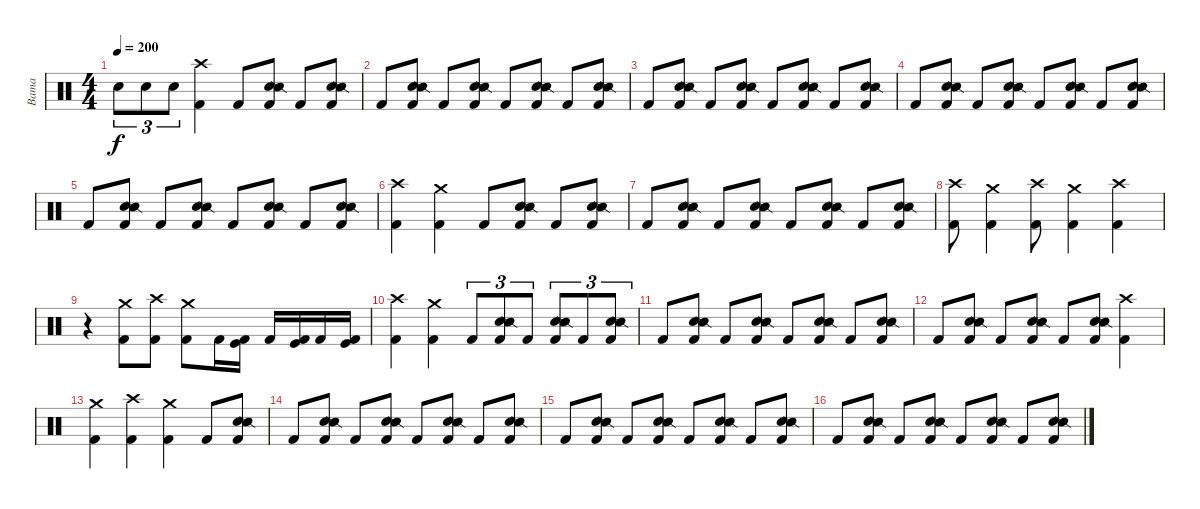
\track ("Bama" "Bama") {instrument percussion}
\staff {score}
\articulation defaults
\ts (4 4)
\tempo 200
\clef neutral
\ks c "Electric Snare (hit)".8{tu (3 2) dy f} "Electric Snare (hit)".8{tu (3 2)} "Electric Snare (hit)".8{tu (3 2)}
("Crash high (hit)" "Kick (hit) 2").4 "Kick (hit) 2".8 ("Electric Snare (hit)" "Snare (side stick) 2" "Kick (hit) 2").8 "Kick (hit) 2".8 ("Electric Snare (hit)" "Snare (side stick) 2" "Kick (hit) 2").8 |
"Kick (hit) 2".8 ("Electric Snare (hit)" "Snare (side stick) 2" "Kick (hit) 2").8 "Kick (hit) 2".8 ("Electric Snare (hit)" "Snare (side stick) 2" "Kick (hit) 2").8 "Kick (hit) 2".8 ("Electric Snare (hit)" "Snare (side stick) 2" "Kick (hit) 2").8 "Kick (hit) 2".8 ("Electric Snare (hit)" "Snare (side stick) 2" "Kick (hit) 2").8 |
"Kick (hit) 2".8 ("Electric Snare (hit)" "Snare (side stick) 2" "Kick (hit) 2").8 "Kick (hit) 2".8 ("Electric Snare (hit)" "Snare (side stick) 2" "Kick (hit) 2").8 "Kick (hit) 2".8 ("Electric Snare (hit)" "Snare (side stick) 2" "Kick (hit) 2").8 "Kick (hit) 2".8 ("Electric Snare (hit)" "Snare (side stick) 2" "Kick (hit) 2").8 |
"Kick (hit) 2".8 ("Electric Snare (hit)" "Snare (side stick) 2" "Kick (hit) 2").8 "Kick (hit) 2".8 ("Electric Snare (hit)" "Snare (side stick) 2" "Kick (hit) 2").8 "Kick (hit) 2".8 ("Electric Snare (hit)" "Snare (side stick) 2" "Kick (hit) 2").8 "Kick (hit) 2".8 ("Electric Snare (hit)" "Snare (side stick) 2" "Kick (hit) 2").8 |
"Kick (hit) 2".8 ("Electric Snare (hit)" "Snare (side stick) 2" "Kick (hit) 2").8 "Kick (hit) 2".8 ("Electric Snare (hit)" "Snare (side stick) 2" "Kick (hit) 2").8 "Kick (hit) 2".8 ("Electric Snare (hit)" "Snare (side stick) 2" "Kick (hit) 2").8 "Kick (hit) 2".8 ("Electric Snare (hit)" "Snare (side stick) 2" "Kick (hit) 2").8 |
("Crash high (hit)" "Kick (hit) 2").4 ("Crash medium (hit)" "Kick (hit) 2").4 "Kick (hit) 2".8 ("Electric Snare (hit)" "Snare (side stick) 2" "Kick (hit) 2").8 "Kick (hit) 2".8 ("Electric Snare (hit)" "Snare (side stick) 2" "Kick (hit) 2").8 |
"Kick (hit) 2".8 ("Electric Snare (hit)" "Snare (side stick) 2" "Kick (hit) 2").8 "Kick (hit) 2".8 ("Electric Snare (hit)" "Snare (side stick) 2" "Kick (hit) 2").8 "Kick (hit) 2".8 ("Electric Snare (hit)" "Snare (side stick) 2" "Kick (hit) 2").8 "Kick (hit) 2".8 ("Electric Snare (hit)" "Snare (side stick) 2" "Kick (hit) 2").8 |
("Crash high (hit)" "Kick (hit) 2").8 ("Crash medium (hit)" "Kick (hit) 2").4 ("Crash high (hit)" "Kick (hit) 2").8 ("Crash medium (hit)" "Kick (hit) 2").4 ("Crash high (hit)" "Kick (hit) 2").4 |
r.4 ("Crash medium (hit)" "Kick (hit) 2").8 ("Crash high (hit)" "Kick (hit) 2").8 ("Crash medium (hit)" "Kick (hit) 2").8 "Kick (hit) 2".16 ("Kick (hit)" "Kick (hit) 2").16 "Kick (hit) 2".16 ("Kick (hit)" "Kick (hit) 2").16 "Kick (hit) 2".16 ("Kick (hit)" "Kick (hit) 2").16 |
("Crash high (hit)" "Kick (hit) 2").4 ("Crash medium (hit)" "Kick (hit) 2").4 "Kick (hit) 2".8{tu (3 2)} ("Electric Snare (hit)" "Snare (side stick) 2" "Kick (hit) 2").8{tu (3 2)} "Kick (hit) 2".8{tu (3 2)} ("Electric Snare (hit)" "Snare (side stick) 2" "Kick (hit) 2").8{tu (3 2)} "Kick (hit) 2".8{tu (3 2)} ("Electric Snare (hit)" "Snare (side stick) 2" "Kick (hit) 2").8{tu (3 2)} |
"Kick (hit) 2".8 ("Electric Snare (hit)" "Snare (side stick) 2" "Kick (hit) 2").8 "Kick (hit) 2".8 ("Electric Snare (hit)" "Snare (side stick) 2" "Kick (hit) 2").8 "Kick (hit) 2".8 ("Electric Snare (hit)" "Snare (side stick) 2" "Kick (hit) 2").8 "Kick (hit) 2".8 ("Electric Snare (hit)" "Snare (side stick) 2" "Kick (hit) 2").8 |
"Kick (hit) 2".8 ("Electric Snare (hit)" "Snare (side stick) 2" "Kick (hit) 2").8 "Kick (hit) 2".8 ("Electric Snare (hit)" "Snare (side stick) 2" "Kick (hit) 2").8 "Kick (hit) 2".8 ("Electric Snare (hit)" "Snare (side stick) 2" "Kick (hit) 2").8 ("Crash high (hit)" "Kick (hit) 2").4 |
("Crash medium (hit)" "Kick (hit) 2").4 ("Crash high (hit)" "Kick (hit) 2").4 ("Crash medium (hit)" "Kick (hit) 2").4 "Kick (hit) 2".8 ("Electric Snare (hit)" "Snare (side stick) 2" "Kick (hit) 2").8 |
"Kick (hit) 2".8 ("Electric Snare (hit)" "Snare (side stick) 2" "Kick (hit) 2").8 "Kick (hit) 2".8 ("Electric Snare (hit)" "Snare (side stick) 2" "Kick (hit) 2").8 "Kick (hit) 2".8 ("Electric Snare (hit)" "Snare (side stick) 2" "Kick (hit) 2").8 "Kick (hit) 2".8 ("Electric Snare (hit)" "Snare (side stick) 2" "Kick (hit) 2").8 |
"Kick (hit) 2".8 ("Electric Snare (hit)" "Snare (side stick) 2" "Kick (hit) 2").8 "Kick (hit) 2".8 ("Electric Snare (hit)" "Snare (side stick) 2" "Kick (hit) 2").8 "Kick (hit) 2".8 ("Electric Snare (hit)" "Snare (side stick) 2" "Kick (hit) 2").8 "Kick (hit) 2".8 ("Electric Snare (hit)" "Snare (side stick) 2" "Kick (hit) 2").8 |
"Kick (hit) 2".8 ("Electric Snare (hit)" "Snare (side stick) 2" "Kick (hit) 2").8 "Kick (hit) 2".8 ("Electric Snare (hit)" "Snare (side stick) 2" "Kick (hit) 2").8 "Kick (hit) 2".8 ("Electric Snare (hit)" "Snare (side stick) 2" "Kick (hit) 2").8 "Kick (hit) 2".8 ("Electric Snare (hit)" "Snare (side stick) 2" "Kick (hit) 2").8
